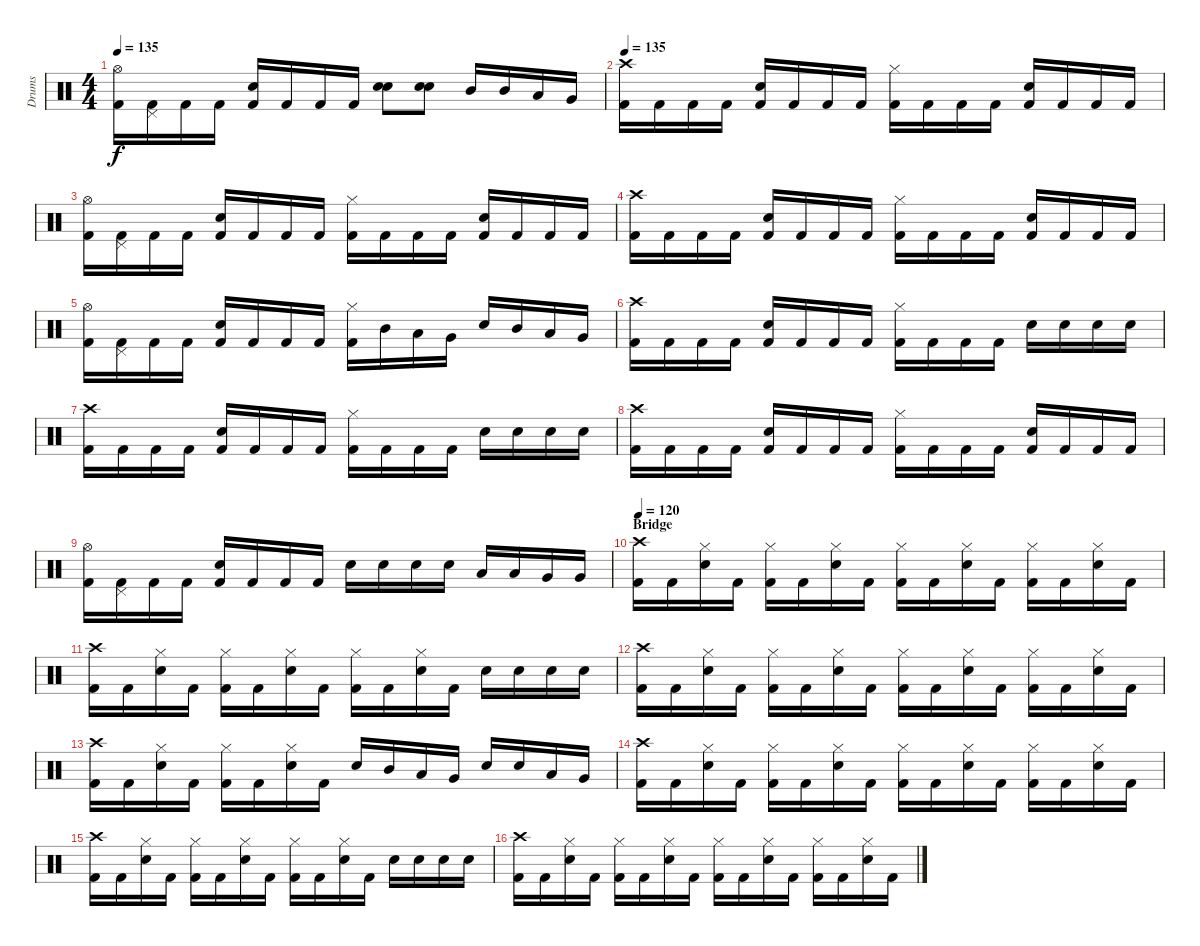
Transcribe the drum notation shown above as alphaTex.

\track ("Drums" "Drums") {instrument percussion}
\staff {score}
\articulation defaults
\ts (4 4)
\tempo 135
\clef neutral
\ks c
("Kick (hit) 2" "Hi-Hat (open)").16{dy f} ("Kick (hit) 2" "Pedal Hi-Hat (hit)").16 "Kick (hit) 2".16 "Kick (hit) 2".16 ("Kick (hit) 2" "Electric Snare (hit)").16 "Kick (hit) 2".16 "Kick (hit) 2".16 "Kick (hit) 2".16 ("Electric Snare (hit)" "Electric Snare (hit)").8{bd 60} ("Electric Snare (hit)" "Electric Snare (hit)").8{bd 60} "Mid Tom (hit)".16 "Mid Tom (hit)".16 "Low Tom (hit)".16 "Very Low Tom (hit)".16 |
\tempo 135
("Kick (hit) 2" "Crash high (hit)").16 "Kick (hit) 2".16 "Kick (hit) 2".16 "Kick (hit) 2".16 ("Kick (hit) 2" "Electric Snare (hit)").16 "Kick (hit) 2".16 "Kick (hit) 2".16 "Kick (hit) 2".16 ("Kick (hit) 2" "Hi-Hat (closed)").16 "Kick (hit) 2".16 "Kick (hit) 2".16 "Kick (hit) 2".16 ("Kick (hit) 2" "Electric Snare (hit)").16 "Kick (hit) 2".16 "Kick (hit) 2".16 "Kick (hit) 2".16 |
("Kick (hit) 2" "Hi-Hat (open)").16 ("Kick (hit) 2" "Pedal Hi-Hat (hit)").16 "Kick (hit) 2".16 "Kick (hit) 2".16 ("Kick (hit) 2" "Electric Snare (hit)").16 "Kick (hit) 2".16 "Kick (hit) 2".16 "Kick (hit) 2".16 ("Kick (hit) 2" "Hi-Hat (closed)").16 "Kick (hit) 2".16 "Kick (hit) 2".16 "Kick (hit) 2".16 ("Kick (hit) 2" "Electric Snare (hit)").16 "Kick (hit) 2".16 "Kick (hit) 2".16 "Kick (hit) 2".16 |
("Kick (hit) 2" "Crash high (hit)").16 "Kick (hit) 2".16 "Kick (hit) 2".16 "Kick (hit) 2".16 ("Kick (hit) 2" "Electric Snare (hit)").16 "Kick (hit) 2".16 "Kick (hit) 2".16 "Kick (hit) 2".16 ("Kick (hit) 2" "Hi-Hat (closed)").16 "Kick (hit) 2".16 "Kick (hit) 2".16 "Kick (hit) 2".16 ("Kick (hit) 2" "Electric Snare (hit)").16 "Kick (hit) 2".16 "Kick (hit) 2".16 "Kick (hit) 2".16 |
("Kick (hit) 2" "Hi-Hat (open)").16 ("Kick (hit) 2" "Pedal Hi-Hat (hit)").16 "Kick (hit) 2".16 "Kick (hit) 2".16 ("Kick (hit) 2" "Electric Snare (hit)").16 "Kick (hit) 2".16 "Kick (hit) 2".16 "Kick (hit) 2".16 ("Kick (hit) 2" "Hi-Hat (closed)").16 "Mid Tom (hit)".16 "Low Tom (hit)".16 "Very Low Tom (hit)".16 "Electric Snare (hit)".16 "Mid Tom (hit)".16 "Low Tom (hit)".16 "Very Low Tom (hit)".16 |
("Kick (hit) 2" "Crash high (hit)").16 "Kick (hit) 2".16 "Kick (hit) 2".16 "Kick (hit) 2".16 ("Kick (hit) 2" "Electric Snare (hit)").16 "Kick (hit) 2".16 "Kick (hit) 2".16 "Kick (hit) 2".16 ("Kick (hit) 2" "Hi-Hat (closed)").16 "Kick (hit) 2".16 "Kick (hit) 2".16 "Kick (hit) 2".16 "Electric Snare (hit)".16 "Electric Snare (hit)".16 "Electric Snare (hit)".16 "Electric Snare (hit)".16 |
("Kick (hit) 2" "Crash high (hit)").16 "Kick (hit) 2".16 "Kick (hit) 2".16 "Kick (hit) 2".16 ("Kick (hit) 2" "Electric Snare (hit)").16 "Kick (hit) 2".16 "Kick (hit) 2".16 "Kick (hit) 2".16 ("Kick (hit) 2" "Hi-Hat (closed)").16 "Kick (hit) 2".16 "Kick (hit) 2".16 "Kick (hit) 2".16 "Electric Snare (hit)".16 "Electric Snare (hit)".16 "Electric Snare (hit)".16 "Electric Snare (hit)".16 |
("Kick (hit) 2" "Crash high (hit)").16 "Kick (hit) 2".16 "Kick (hit) 2".16 "Kick (hit) 2".16 ("Kick (hit) 2" "Electric Snare (hit)").16 "Kick (hit) 2".16 "Kick (hit) 2".16 "Kick (hit) 2".16 ("Kick (hit) 2" "Hi-Hat (closed)").16 "Kick (hit) 2".16 "Kick (hit) 2".16 "Kick (hit) 2".16 ("Kick (hit) 2" "Electric Snare (hit)").16 "Kick (hit) 2".16 "Kick (hit) 2".16 "Kick (hit) 2".16 |
("Kick (hit) 2" "Hi-Hat (open)").16 ("Kick (hit) 2" "Pedal Hi-Hat (hit)").16 "Kick (hit) 2".16 "Kick (hit) 2".16 ("Kick (hit) 2" "Electric Snare (hit)").16 "Kick (hit) 2".16 "Kick (hit) 2".16 "Kick (hit) 2".16 "Electric Snare (hit)".16 "Electric Snare (hit)".16 "Electric Snare (hit)".16 "Electric Snare (hit)".16 "Low Tom (hit)".16 "Low Tom (hit)".16 "Very Low Tom (hit)".16 "Very Low Tom (hit)".16 |
\section ("" "Bridge")
\tempo 120
("Kick (hit) 2" "Crash high (hit)").16 "Kick (hit) 2".16 ("Electric Snare (hit)" "Hi-Hat (closed)").16 "Kick (hit) 2".16 ("Kick (hit) 2" "Hi-Hat (closed)").16 "Kick (hit) 2".16 ("Electric Snare (hit)" "Hi-Hat (closed)").16 "Kick (hit) 2".16 ("Kick (hit) 2" "Hi-Hat (closed)").16 "Kick (hit) 2".16 ("Electric Snare (hit)" "Hi-Hat (closed)").16 "Kick (hit) 2".16 ("Kick (hit) 2" "Hi-Hat (closed)").16 "Kick (hit) 2".16 ("Electric Snare (hit)" "Hi-Hat (closed)").16 "Kick (hit) 2".16 |
("Kick (hit) 2" "Crash high (hit)").16 "Kick (hit) 2".16 ("Electric Snare (hit)" "Hi-Hat (closed)").16 "Kick (hit) 2".16 ("Kick (hit) 2" "Hi-Hat (closed)").16 "Kick (hit) 2".16 ("Electric Snare (hit)" "Hi-Hat (closed)").16 "Kick (hit) 2".16 ("Kick (hit) 2" "Hi-Hat (closed)").16 "Kick (hit) 2".16 ("Electric Snare (hit)" "Hi-Hat (closed)").16 "Kick (hit) 2".16 "Electric Snare (hit)".16 "Electric Snare (hit)".16 "Electric Snare (hit)".16 "Electric Snare (hit)".16 |
("Kick (hit) 2" "Crash high (hit)").16 "Kick (hit) 2".16 ("Electric Snare (hit)" "Hi-Hat (closed)").16 "Kick (hit) 2".16 ("Kick (hit) 2" "Hi-Hat (closed)").16 "Kick (hit) 2".16 ("Electric Snare (hit)" "Hi-Hat (closed)").16 "Kick (hit) 2".16 ("Kick (hit) 2" "Hi-Hat (closed)").16 "Kick (hit) 2".16 ("Electric Snare (hit)" "Hi-Hat (closed)").16 "Kick (hit) 2".16 ("Kick (hit) 2" "Hi-Hat (closed)").16 "Kick (hit) 2".16 ("Electric Snare (hit)" "Hi-Hat (closed)").16 "Kick (hit) 2".16 |
("Kick (hit) 2" "Crash high (hit)").16 "Kick (hit) 2".16 ("Electric Snare (hit)" "Hi-Hat (closed)").16 "Kick (hit) 2".16 ("Kick (hit) 2" "Hi-Hat (closed)").16 "Kick (hit) 2".16 ("Electric Snare (hit)" "Hi-Hat (closed)").16 "Kick (hit) 2".16 "Electric Snare (hit)".16 "Mid Tom (hit)".16 "Low Tom (hit)".16 "Very Low Tom (hit)".16 "Electric Snare (hit)".16 "Electric Snare (hit)".16 "Low Tom (hit)".16 "Very Low Tom (hit)".16 |
("Kick (hit) 2" "Crash high (hit)").16 "Kick (hit) 2".16 ("Electric Snare (hit)" "Hi-Hat (closed)").16 "Kick (hit) 2".16 ("Kick (hit) 2" "Hi-Hat (closed)").16 "Kick (hit) 2".16 ("Electric Snare (hit)" "Hi-Hat (closed)").16 "Kick (hit) 2".16 ("Kick (hit) 2" "Hi-Hat (closed)").16 "Kick (hit) 2".16 ("Electric Snare (hit)" "Hi-Hat (closed)").16 "Kick (hit) 2".16 ("Kick (hit) 2" "Hi-Hat (closed)").16 "Kick (hit) 2".16 ("Electric Snare (hit)" "Hi-Hat (closed)").16 "Kick (hit) 2".16 |
("Kick (hit) 2" "Crash high (hit)").16 "Kick (hit) 2".16 ("Electric Snare (hit)" "Hi-Hat (closed)").16 "Kick (hit) 2".16 ("Kick (hit) 2" "Hi-Hat (closed)").16 "Kick (hit) 2".16 ("Electric Snare (hit)" "Hi-Hat (closed)").16 "Kick (hit) 2".16 ("Kick (hit) 2" "Hi-Hat (closed)").16 "Kick (hit) 2".16 ("Electric Snare (hit)" "Hi-Hat (closed)").16 "Kick (hit) 2".16 "Electric Snare (hit)".16 "Electric Snare (hit)".16 "Electric Snare (hit)".16 "Electric Snare (hit)".16 |
("Kick (hit) 2" "Crash high (hit)").16 "Kick (hit) 2".16 ("Electric Snare (hit)" "Hi-Hat (closed)").16 "Kick (hit) 2".16 ("Kick (hit) 2" "Hi-Hat (closed)").16 "Kick (hit) 2".16 ("Electric Snare (hit)" "Hi-Hat (closed)").16 "Kick (hit) 2".16 ("Kick (hit) 2" "Hi-Hat (closed)").16 "Kick (hit) 2".16 ("Electric Snare (hit)" "Hi-Hat (closed)").16 "Kick (hit) 2".16 ("Kick (hit) 2" "Hi-Hat (closed)").16 "Kick (hit) 2".16 ("Electric Snare (hit)" "Hi-Hat (closed)").16 "Kick (hit) 2".16
